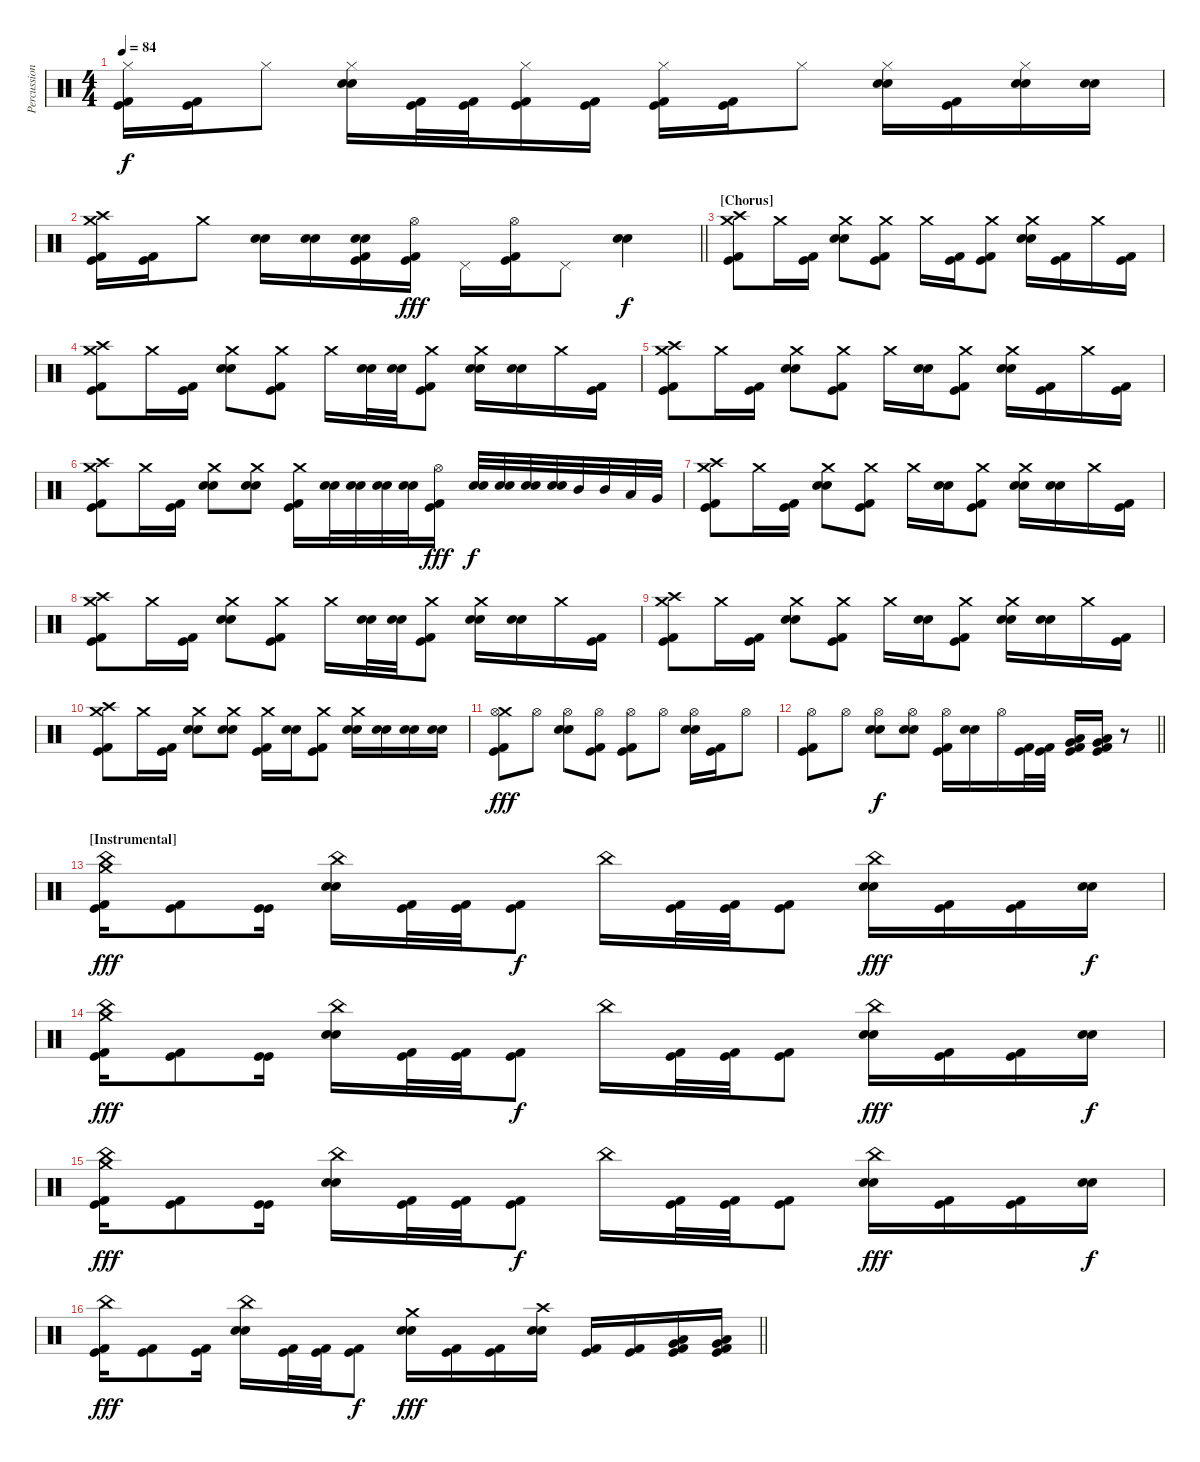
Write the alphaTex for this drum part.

\track ("Percussion" "Percussion") {instrument percussion}
\staff {score}
\articulation defaults
\ts (4 4)
\tempo 84
\clef neutral
\ks c
("Hi-Hat (closed)" "Kick (hit)" "Kick (hit) 2").16{dy f} ("Kick (hit)" "Kick (hit) 2").16 "Hi-Hat (closed)".8 ("Hi-Hat (closed)" "Electric Snare (hit)" "Snare (hit) 2").16 ("Kick (hit)" "Kick (hit) 2").32 ("Kick (hit)" "Kick (hit) 2").32 ("Hi-Hat (closed)" "Kick (hit)" "Kick (hit) 2").16 ("Kick (hit)" "Kick (hit) 2").16 ("Hi-Hat (closed)" "Kick (hit)" "Kick (hit) 2").16 ("Kick (hit)" "Kick (hit) 2").16 "Hi-Hat (closed)".8 ("Hi-Hat (closed)" "Electric Snare (hit)" "Snare (hit) 2").16 ("Kick (hit)" "Kick (hit) 2").16 ("Hi-Hat (closed)" "Electric Snare (hit)" "Snare (hit) 2").16 ("Electric Snare (hit)" "Snare (hit) 2").16 |
\barLineRight lightlight
("Crash high (hit)" "Crash medium (hit)" "Kick (hit)" "Kick (hit) 2").16 ("Kick (hit)" "Kick (hit) 2").16 "Crash medium (hit)".8 ("Electric Snare (hit)" "Snare (hit) 2").16 ("Electric Snare (hit)" "Snare (hit) 2").16 ("Electric Snare (hit)" "Snare (hit) 2" "Kick (hit)" "Kick (hit) 2").16 ("Hi-Hat (open)" "Kick (hit)" "Kick (hit) 2").16{dy fff} "Pedal Hi-Hat (hit)".16 ("Hi-Hat (open)" "Kick (hit)" "Kick (hit) 2").16 "Pedal Hi-Hat (hit)".8 ("Electric Snare (hit)" "Snare (hit) 2").4{dy f} |
\section ("" "[Chorus]")
("Crash high (hit)" "Crash medium (hit)" "Kick (hit)" "Kick (hit) 2").8 "Crash medium (hit)".16 ("Kick (hit)" "Kick (hit) 2").16 ("Crash medium (hit)" "Electric Snare (hit)" "Snare (hit) 2").8 ("Crash medium (hit)" "Kick (hit)" "Kick (hit) 2").8 "Crash medium (hit)".16 ("Kick (hit)" "Kick (hit) 2").16 ("Crash medium (hit)" "Kick (hit)" "Kick (hit) 2").8 ("Crash medium (hit)" "Electric Snare (hit)" "Snare (hit) 2").16 ("Kick (hit)" "Kick (hit) 2").16 "Crash medium (hit)".16 ("Kick (hit)" "Kick (hit) 2").16 |
("Crash high (hit)" "Crash medium (hit)" "Kick (hit)" "Kick (hit) 2").8 "Crash medium (hit)".16 ("Kick (hit)" "Kick (hit) 2").16 ("Crash medium (hit)" "Electric Snare (hit)" "Snare (hit) 2").8 ("Crash medium (hit)" "Kick (hit)" "Kick (hit) 2").8 "Crash medium (hit)".16 ("Electric Snare (hit)" "Snare (hit) 2").32 ("Electric Snare (hit)" "Snare (hit) 2").32 ("Crash medium (hit)" "Kick (hit)" "Kick (hit) 2").8 ("Crash medium (hit)" "Electric Snare (hit)" "Snare (hit) 2").16 ("Electric Snare (hit)" "Snare (hit) 2").16 "Crash medium (hit)".16 ("Kick (hit)" "Kick (hit) 2").16 |
("Crash high (hit)" "Crash medium (hit)" "Kick (hit)" "Kick (hit) 2").8 "Crash medium (hit)".16 ("Kick (hit)" "Kick (hit) 2").16 ("Crash medium (hit)" "Electric Snare (hit)" "Snare (hit) 2").8 ("Crash medium (hit)" "Kick (hit)" "Kick (hit) 2").8 "Crash medium (hit)".16 ("Electric Snare (hit)" "Snare (hit) 2").16 ("Crash medium (hit)" "Kick (hit)" "Kick (hit) 2").8 ("Crash medium (hit)" "Electric Snare (hit)" "Snare (hit) 2").16 ("Kick (hit)" "Kick (hit) 2").16 "Crash medium (hit)".16 ("Kick (hit)" "Kick (hit) 2").16 |
("Crash high (hit)" "Crash medium (hit)" "Kick (hit)" "Kick (hit) 2").8 "Crash medium (hit)".16 ("Kick (hit)" "Kick (hit) 2").16 ("Crash medium (hit)" "Electric Snare (hit)" "Snare (hit) 2").8 ("Crash medium (hit)" "Electric Snare (hit)" "Snare (hit) 2").8 ("Crash medium (hit)" "Kick (hit)" "Kick (hit) 2").16 ("Electric Snare (hit)" "Snare (hit) 2").32 ("Electric Snare (hit)" "Snare (hit) 2").32 ("Electric Snare (hit)" "Snare (hit) 2").32 ("Electric Snare (hit)" "Snare (hit) 2").32 ("Hi-Hat (open)" "Kick (hit)" "Kick (hit) 2").16{dy fff} ("Electric Snare (hit)" "Snare (hit) 2").32{dy f} ("Electric Snare (hit)" "Snare (hit) 2").32 ("Electric Snare (hit)" "Snare (hit) 2").32 ("Electric Snare (hit)" "Snare (hit) 2").32 "Mid Tom (hit)".32 "Mid Tom (hit)".32 "Low Tom (hit)".32 "Very Low Tom (hit)".32 |
("Crash high (hit)" "Crash medium (hit)" "Kick (hit)" "Kick (hit) 2").8 "Crash medium (hit)".16 ("Kick (hit)" "Kick (hit) 2").16 ("Crash medium (hit)" "Electric Snare (hit)" "Snare (hit) 2").8 ("Crash medium (hit)" "Kick (hit)" "Kick (hit) 2").8 "Crash medium (hit)".16 ("Electric Snare (hit)" "Snare (hit) 2").16 ("Crash medium (hit)" "Kick (hit)" "Kick (hit) 2").8 ("Crash medium (hit)" "Electric Snare (hit)" "Snare (hit) 2").16 ("Electric Snare (hit)" "Snare (hit) 2").16 "Crash medium (hit)".16 ("Kick (hit)" "Kick (hit) 2").16 |
("Crash high (hit)" "Crash medium (hit)" "Kick (hit)" "Kick (hit) 2").8 "Crash medium (hit)".16 ("Kick (hit)" "Kick (hit) 2").16 ("Crash medium (hit)" "Electric Snare (hit)" "Snare (hit) 2").8 ("Crash medium (hit)" "Kick (hit)" "Kick (hit) 2").8 "Crash medium (hit)".16 ("Electric Snare (hit)" "Snare (hit) 2").32 ("Electric Snare (hit)" "Snare (hit) 2").32 ("Crash medium (hit)" "Kick (hit)" "Kick (hit) 2").8 ("Crash medium (hit)" "Electric Snare (hit)" "Snare (hit) 2").16 ("Electric Snare (hit)" "Snare (hit) 2").16 "Crash medium (hit)".16 ("Kick (hit)" "Kick (hit) 2").16 |
("Crash high (hit)" "Crash medium (hit)" "Kick (hit)" "Kick (hit) 2").8 "Crash medium (hit)".16 ("Kick (hit)" "Kick (hit) 2").16 ("Crash medium (hit)" "Electric Snare (hit)" "Snare (hit) 2").8 ("Crash medium (hit)" "Kick (hit)" "Kick (hit) 2").8 "Crash medium (hit)".16 ("Electric Snare (hit)" "Snare (hit) 2").16 ("Crash medium (hit)" "Kick (hit)" "Kick (hit) 2").8 ("Crash medium (hit)" "Electric Snare (hit)" "Snare (hit) 2").16 ("Electric Snare (hit)" "Snare (hit) 2").16 "Crash medium (hit)".16 ("Kick (hit)" "Kick (hit) 2").16 |
("Crash high (hit)" "Crash medium (hit)" "Kick (hit)" "Kick (hit) 2").8 "Crash medium (hit)".16 ("Kick (hit)" "Kick (hit) 2").16 ("Crash medium (hit)" "Electric Snare (hit)" "Snare (hit) 2").8 ("Crash medium (hit)" "Electric Snare (hit)" "Snare (hit) 2").8 ("Crash medium (hit)" "Kick (hit)" "Kick (hit) 2").16 ("Electric Snare (hit)" "Snare (hit) 2").16 ("Crash medium (hit)" "Kick (hit)" "Kick (hit) 2").8 ("Crash medium (hit)" "Electric Snare (hit)" "Snare (hit) 2").16 ("Electric Snare (hit)" "Snare (hit) 2").16 ("Electric Snare (hit)" "Snare (hit) 2").16 ("Electric Snare (hit)" "Snare (hit) 2").16 |
("Crash medium (hit)" "Hi-Hat (open)" "Kick (hit)" "Kick (hit) 2").8{dy fff} "Hi-Hat (open)".8 ("Hi-Hat (open)" "Electric Snare (hit)" "Snare (hit) 2").8 ("Hi-Hat (open)" "Kick (hit)" "Kick (hit) 2").8 ("Hi-Hat (open)" "Kick (hit)" "Kick (hit) 2").8 "Hi-Hat (open)".8 ("Hi-Hat (open)" "Electric Snare (hit)" "Snare (hit) 2").16 ("Kick (hit)" "Kick (hit) 2").16 "Hi-Hat (open)".8 |
\barLineRight lightlight
("Hi-Hat (open)" "Kick (hit)" "Kick (hit) 2").8 "Hi-Hat (open)".8 ("Hi-Hat (open)" "Electric Snare (hit)" "Snare (hit) 2").8{dy f} ("Hi-Hat (open)" "Electric Snare (hit)" "Snare (hit) 2").8 ("Hi-Hat (open)" "Kick (hit)" "Kick (hit) 2").16 ("Electric Snare (hit)" "Snare (hit) 2").16 "Hi-Hat (open)".16 ("Kick (hit)" "Kick (hit) 2").32 ("Kick (hit)" "Kick (hit) 2").32 ("Low Tom (hit)" "Very Low Tom (hit)" "Kick (hit)" "Kick (hit) 2").16 ("Very Low Tom (hit)" "Low Floor Tom (hit)" "Kick (hit)" "Kick (hit) 2").16 r.8 |
\section ("" "[Instrumental]")
("Crash medium (hit)" "China (hit)" "Kick (hit)" "Kick (hit) 2").16{dy fff} ("Kick (hit)" "Kick (hit) 2").8 ("Kick (hit)" "Kick (hit)").16 ("China (hit)" "Electric Snare (hit)" "Snare (hit) 2").16 ("Kick (hit)" "Kick (hit) 2").32 ("Kick (hit)" "Kick (hit) 2").32 ("Kick (hit)" "Kick (hit) 2").8{dy f} "China (hit)".16 ("Kick (hit)" "Kick (hit) 2").32 ("Kick (hit)" "Kick (hit) 2").32 ("Kick (hit)" "Kick (hit) 2").8 ("China (hit)" "Electric Snare (hit)" "Snare (hit) 2").16{dy fff} ("Kick (hit)" "Kick (hit) 2").16 ("Kick (hit)" "Kick (hit) 2").16 ("Electric Snare (hit)" "Snare (hit) 2").16{dy f} |
("Crash medium (hit)" "China (hit)" "Kick (hit)" "Kick (hit) 2").16{dy fff} ("Kick (hit)" "Kick (hit) 2").8 ("Kick (hit)" "Kick (hit)").16 ("China (hit)" "Electric Snare (hit)" "Snare (hit) 2").16 ("Kick (hit)" "Kick (hit) 2").32 ("Kick (hit)" "Kick (hit) 2").32 ("Kick (hit)" "Kick (hit) 2").8{dy f} "China (hit)".16 ("Kick (hit)" "Kick (hit) 2").32 ("Kick (hit)" "Kick (hit) 2").32 ("Kick (hit)" "Kick (hit) 2").8 ("China (hit)" "Electric Snare (hit)" "Snare (hit) 2").16{dy fff} ("Kick (hit)" "Kick (hit) 2").16 ("Kick (hit)" "Kick (hit) 2").16 ("Electric Snare (hit)" "Snare (hit) 2").16{dy f} |
("Crash medium (hit)" "China (hit)" "Kick (hit)" "Kick (hit) 2").16{dy fff} ("Kick (hit)" "Kick (hit) 2").8 ("Kick (hit)" "Kick (hit)").16 ("China (hit)" "Electric Snare (hit)" "Snare (hit) 2").16 ("Kick (hit)" "Kick (hit) 2").32 ("Kick (hit)" "Kick (hit) 2").32 ("Kick (hit)" "Kick (hit) 2").8{dy f} "China (hit)".16 ("Kick (hit)" "Kick (hit) 2").32 ("Kick (hit)" "Kick (hit) 2").32 ("Kick (hit)" "Kick (hit) 2").8 ("China (hit)" "Electric Snare (hit)" "Snare (hit) 2").16{dy fff} ("Kick (hit)" "Kick (hit) 2").16 ("Kick (hit)" "Kick (hit) 2").16 ("Electric Snare (hit)" "Snare (hit) 2").16{dy f} |
\barLineRight lightlight
("China (hit)" "Kick (hit)" "Kick (hit) 2").16{dy fff} ("Kick (hit)" "Kick (hit) 2").8 ("Kick (hit)" "Kick (hit) 2").16 ("China (hit)" "Electric Snare (hit)" "Snare (hit) 2").16 ("Kick (hit)" "Kick (hit) 2").32 ("Kick (hit)" "Kick (hit) 2").32 ("Kick (hit)" "Kick (hit) 2").8{dy f} ("Crash medium (hit)" "Electric Snare (hit)" "Snare (hit) 2").16{dy fff} ("Kick (hit)" "Kick (hit) 2").16 ("Kick (hit)" "Kick (hit) 2").16 ("Crash high (hit)" "Electric Snare (hit)" "Snare (hit) 2").16 ("Kick (hit)" "Kick (hit) 2").16 ("Kick (hit)" "Kick (hit) 2").16 ("Very Low Tom (hit)" "Low Floor Tom (hit)" "Kick (hit)" "Kick (hit) 2").16 ("Very Low Tom (hit)" "Low Floor Tom (hit)" "Kick (hit)" "Kick (hit) 2").16
